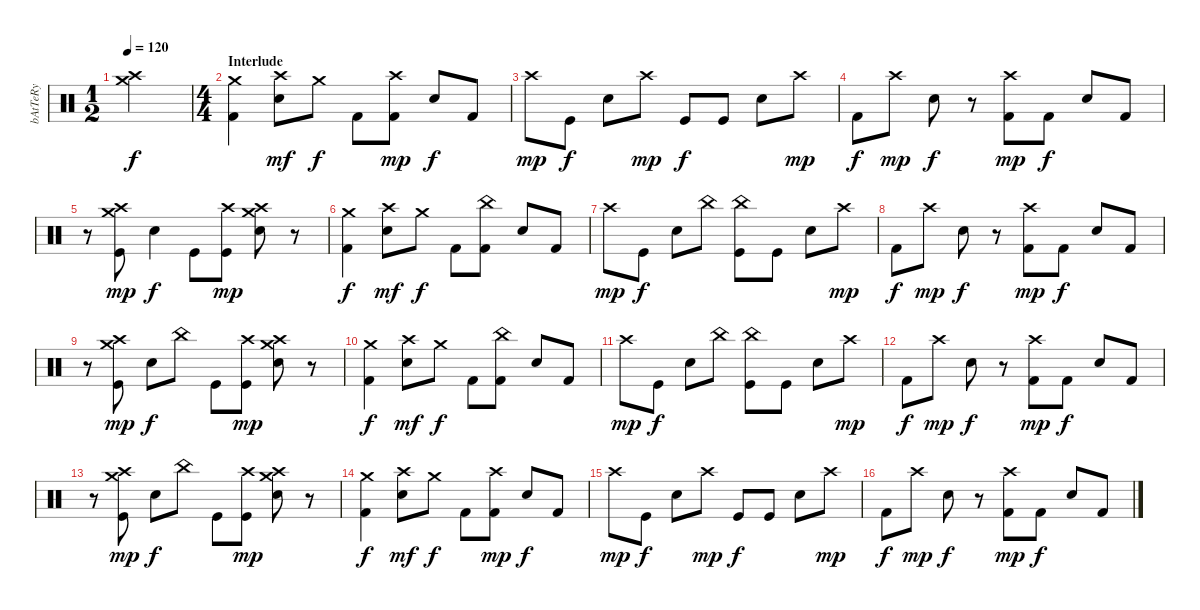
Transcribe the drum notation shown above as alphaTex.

\track ("bAtTeRy" "bAtTeRy") {instrument percussion}
\staff {score}
\articulation defaults
\ts (1 2)
\tempo 120
\clef neutral
\ks c
("Crash medium (hit)" "Crash high (hit)").2{dy f} |
\ts (4 4)
\section ("" "Interlude")
("Crash medium (hit)" "Kick (hit) 2").4 ("Crash high (hit)" "Electric Snare (hit)").8{dy mf} "Crash medium (hit)".8{dy f} "Kick (hit) 2".8 ("Crash high (hit)" "Kick (hit) 2").8{dy mp} "Electric Snare (hit)".8{dy f} "Kick (hit) 2".8 |
"Crash high (hit)".8{dy mp} "Kick (hit)".8{dy f} "Electric Snare (hit)".8 "Crash high (hit)".8{dy mp} "Kick (hit)".8{dy f} "Kick (hit)".8 "Electric Snare (hit)".8 "Crash high (hit)".8{dy mp} |
"Kick (hit) 2".8{dy f} "Crash high (hit)".8{dy mp} "Electric Snare (hit)".8{dy f} r.8 ("Crash high (hit)" "Kick (hit) 2").8{dy mp} "Kick (hit) 2".8{dy f} "Electric Snare (hit)".8 "Kick (hit) 2".8 |
r.8 ("Crash medium (hit)" "Crash high (hit)" "Kick (hit)").8{dy mp} "Electric Snare (hit)".4{dy f} "Kick (hit)".8 ("Crash high (hit)" "Kick (hit)").8{dy mp} ("Crash medium (hit)" "Crash high (hit)" "Electric Snare (hit)").8 r.8 |
("Crash medium (hit)" "Kick (hit) 2").4{dy f} ("Crash high (hit)" "Electric Snare (hit)").8{dy mf} "Crash medium (hit)".8{dy f} "Kick (hit) 2".8 ("China (hit)" "Kick (hit) 2").8 "Electric Snare (hit)".8 "Kick (hit) 2".8 |
"Crash high (hit)".8{dy mp} "Kick (hit)".8{dy f} "Electric Snare (hit)".8 "China (hit)".8 ("China (hit)" "Kick (hit)").8 "Kick (hit)".8 "Electric Snare (hit)".8 "Crash high (hit)".8{dy mp} |
"Kick (hit) 2".8{dy f} "Crash high (hit)".8{dy mp} "Electric Snare (hit)".8{dy f} r.8 ("Crash high (hit)" "Kick (hit) 2").8{dy mp} "Kick (hit) 2".8{dy f} "Electric Snare (hit)".8 "Kick (hit) 2".8 |
r.8 ("Crash medium (hit)" "Crash high (hit)" "Kick (hit)").8{dy mp} "Electric Snare (hit)".8{dy f} "China (hit)".8 "Kick (hit)".8 ("Crash high (hit)" "Kick (hit)").8{dy mp} ("Crash medium (hit)" "Crash high (hit)" "Electric Snare (hit)").8 r.8 |
("Crash medium (hit)" "Kick (hit) 2").4{dy f} ("Crash high (hit)" "Electric Snare (hit)").8{dy mf} "Crash medium (hit)".8{dy f} "Kick (hit) 2".8 ("China (hit)" "Kick (hit) 2").8 "Electric Snare (hit)".8 "Kick (hit) 2".8 |
"Crash high (hit)".8{dy mp} "Kick (hit)".8{dy f} "Electric Snare (hit)".8 "China (hit)".8 ("China (hit)" "Kick (hit)").8 "Kick (hit)".8 "Electric Snare (hit)".8 "Crash high (hit)".8{dy mp} |
"Kick (hit) 2".8{dy f} "Crash high (hit)".8{dy mp} "Electric Snare (hit)".8{dy f} r.8 ("Crash high (hit)" "Kick (hit) 2").8{dy mp} "Kick (hit) 2".8{dy f} "Electric Snare (hit)".8 "Kick (hit) 2".8 |
r.8 ("Crash medium (hit)" "Crash high (hit)" "Kick (hit)").8{dy mp} "Electric Snare (hit)".8{dy f} "China (hit)".8 "Kick (hit)".8 ("Crash high (hit)" "Kick (hit)").8{dy mp} ("Crash medium (hit)" "Crash high (hit)" "Electric Snare (hit)").8 r.8 |
("Crash medium (hit)" "Kick (hit) 2").4{dy f} ("Crash high (hit)" "Electric Snare (hit)").8{dy mf} "Crash medium (hit)".8{dy f} "Kick (hit) 2".8 ("Crash high (hit)" "Kick (hit) 2").8{dy mp} "Electric Snare (hit)".8{dy f} "Kick (hit) 2".8 |
"Crash high (hit)".8{dy mp} "Kick (hit)".8{dy f} "Electric Snare (hit)".8 "Crash high (hit)".8{dy mp} "Kick (hit)".8{dy f} "Kick (hit)".8 "Electric Snare (hit)".8 "Crash high (hit)".8{dy mp} |
"Kick (hit) 2".8{dy f} "Crash high (hit)".8{dy mp} "Electric Snare (hit)".8{dy f} r.8 ("Crash high (hit)" "Kick (hit) 2").8{dy mp} "Kick (hit) 2".8{dy f} "Electric Snare (hit)".8 "Kick (hit) 2".8
